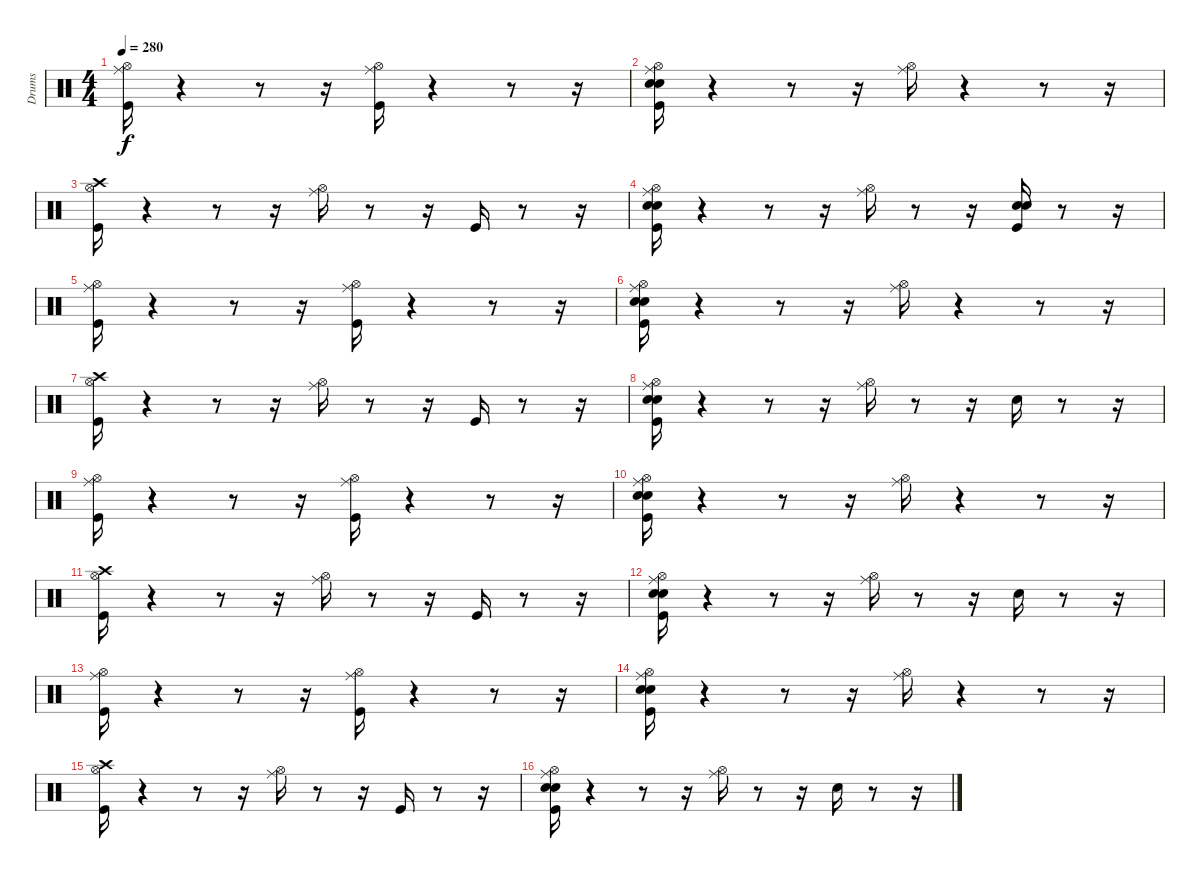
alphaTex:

\track ("Drums" "Drums") {instrument percussion}
\staff {score}
\articulation defaults
\ts (4 4)
\tempo 280
\clef neutral
\ks c
("Ride (middle)" "Hi-Hat (open)" "Kick (hit)").16{dy f} r.4 r.8 r.16 ("Hi-Hat (open)" "Ride (middle)" "Kick (hit)").16 r.4 r.8 r.16 |
("Ride (middle)" "Hi-Hat (open)" "Kick (hit)" "Snare (hit) 2" "Electric Snare (hit)").16 r.4 r.8 r.16 ("Hi-Hat (open)" "Ride (middle)").16 r.4 r.8 r.16 |
("Crash high (hit)" "Hi-Hat (open)" "Kick (hit)").16 r.4 r.8 r.16 ("Hi-Hat (open)" "Ride (middle)").16 r.8 r.16 "Kick (hit)".16 r.8 r.16 |
("Hi-Hat (open)" "Kick (hit)" "Snare (hit) 2" "Electric Snare (hit)" "Ride (middle)").16 r.4 r.8 r.16 ("Hi-Hat (open)" "Ride (middle)").16 r.8 r.16 ("Snare (hit) 2" "Electric Snare (hit)" "Kick (hit)").16 r.8 r.16 |
("Ride (middle)" "Hi-Hat (open)" "Kick (hit)").16 r.4 r.8 r.16 ("Hi-Hat (open)" "Ride (middle)" "Kick (hit)").16 r.4 r.8 r.16 |
("Ride (middle)" "Hi-Hat (open)" "Kick (hit)" "Snare (hit) 2" "Electric Snare (hit)").16 r.4 r.8 r.16 ("Hi-Hat (open)" "Ride (middle)").16 r.4 r.8 r.16 |
("Crash high (hit)" "Hi-Hat (open)" "Kick (hit)").16 r.4 r.8 r.16 ("Hi-Hat (open)" "Ride (middle)").16 r.8 r.16 "Kick (hit)".16 r.8 r.16 |
("Hi-Hat (open)" "Kick (hit)" "Snare (hit) 2" "Electric Snare (hit)" "Ride (middle)").16 r.4 r.8 r.16 ("Hi-Hat (open)" "Ride (middle)").16 r.8 r.16 "Snare (hit) 2".16 r.8 r.16 |
("Ride (middle)" "Hi-Hat (open)" "Kick (hit)").16 r.4 r.8 r.16 ("Hi-Hat (open)" "Ride (middle)" "Kick (hit)").16 r.4 r.8 r.16 |
("Ride (middle)" "Hi-Hat (open)" "Kick (hit)" "Snare (hit) 2" "Electric Snare (hit)").16 r.4 r.8 r.16 ("Hi-Hat (open)" "Ride (middle)").16 r.4 r.8 r.16 |
("Crash high (hit)" "Hi-Hat (open)" "Kick (hit)").16 r.4 r.8 r.16 ("Hi-Hat (open)" "Ride (middle)").16 r.8 r.16 "Kick (hit)".16 r.8 r.16 |
("Hi-Hat (open)" "Kick (hit)" "Snare (hit) 2" "Electric Snare (hit)" "Ride (middle)").16 r.4 r.8 r.16 ("Hi-Hat (open)" "Ride (middle)").16 r.8 r.16 "Snare (hit) 2".16 r.8 r.16 |
("Ride (middle)" "Hi-Hat (open)" "Kick (hit)").16 r.4 r.8 r.16 ("Hi-Hat (open)" "Ride (middle)" "Kick (hit)").16 r.4 r.8 r.16 |
("Ride (middle)" "Hi-Hat (open)" "Kick (hit)" "Snare (hit) 2" "Electric Snare (hit)").16 r.4 r.8 r.16 ("Hi-Hat (open)" "Ride (middle)").16 r.4 r.8 r.16 |
("Crash high (hit)" "Hi-Hat (open)" "Kick (hit)").16 r.4 r.8 r.16 ("Hi-Hat (open)" "Ride (middle)").16 r.8 r.16 "Kick (hit)".16 r.8 r.16 |
("Hi-Hat (open)" "Kick (hit)" "Snare (hit) 2" "Electric Snare (hit)" "Ride (middle)").16 r.4 r.8 r.16 ("Hi-Hat (open)" "Ride (middle)").16 r.8 r.16 "Snare (hit) 2".16 r.8 r.16
